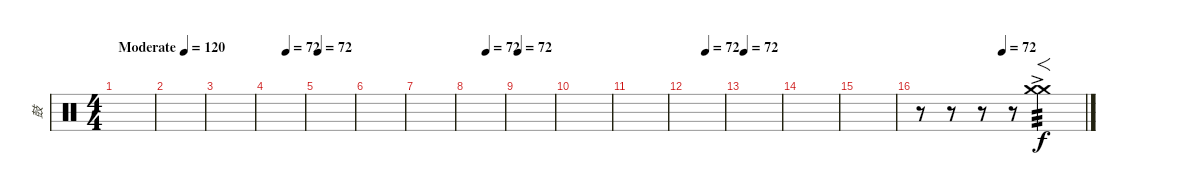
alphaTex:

\track ("鼓" "鼓") {instrument percussion}
\staff {score}
\articulation defaults
\ts (4 4)
\tempo (120 "Moderate")
\tempo 72
\tempo (120 "Moderate")
\clef neutral
\ks c
|
|
|
\tempo (72 0.5)
|
\tempo 72
|
|
|
\tempo (72 0.5)
|
\tempo 72
|
|
|
\tempo (72 0.5)
|
\tempo 72
|
|
|
\tempo (72 0.5)
r.8 r.8 r.8 r.8 ("Crash medium (hit)" "Crash medium (hit)"{ac}).2{f tp 3}
